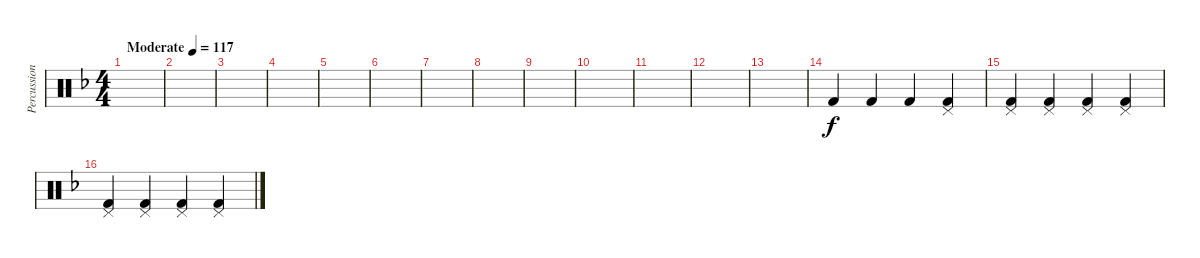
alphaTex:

\track ("Percussion" "Percussion") {instrument percussion}
\staff {score}
\articulation defaults
\ts (4 4)
\tempo (117 "Moderate")
\clef neutral
\ks f
|
|
|
|
|
|
|
|
|
|
|
|
|
"Kick (hit) 2".4 "Kick (hit) 2".4 "Kick (hit) 2".4 ("Pedal Hi-Hat (hit)" "Kick (hit) 2").4 |
("Pedal Hi-Hat (hit)" "Kick (hit) 2").4 ("Pedal Hi-Hat (hit)" "Kick (hit) 2").4 ("Pedal Hi-Hat (hit)" "Kick (hit) 2").4 ("Pedal Hi-Hat (hit)" "Kick (hit) 2").4 |
("Pedal Hi-Hat (hit)" "Kick (hit) 2").4 ("Pedal Hi-Hat (hit)" "Kick (hit) 2").4 ("Pedal Hi-Hat (hit)" "Kick (hit) 2").4 ("Pedal Hi-Hat (hit)" "Kick (hit) 2").4
